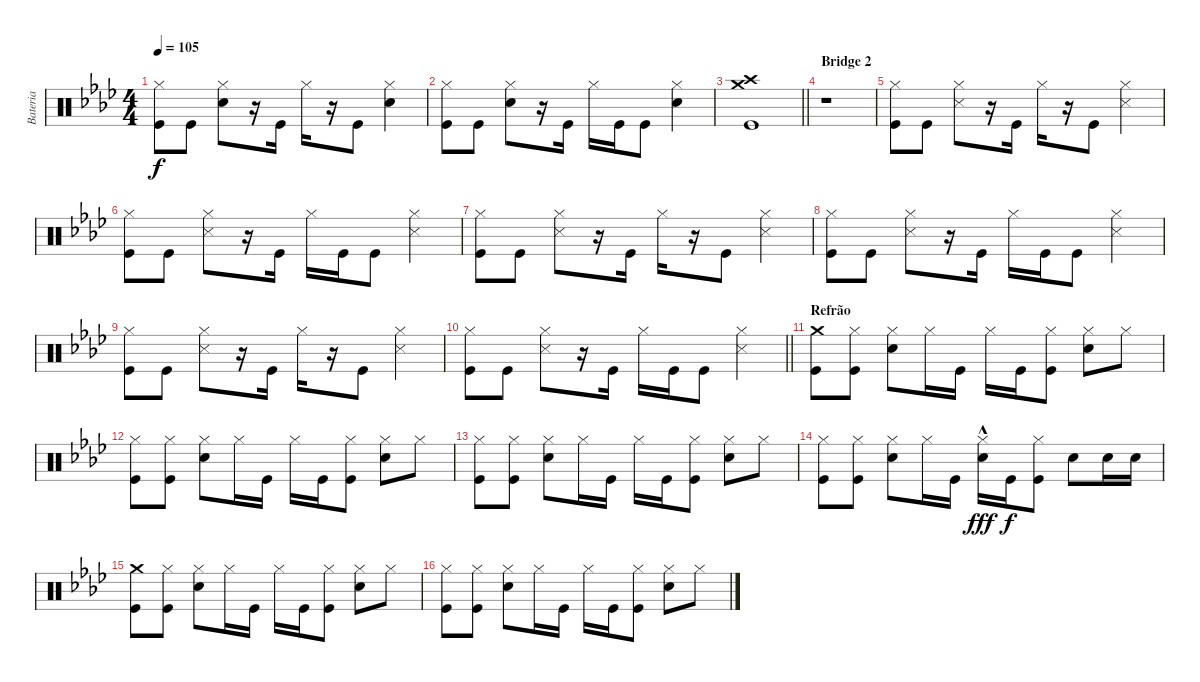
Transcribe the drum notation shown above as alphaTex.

\track ("Bateria" "Bateria") {instrument percussion}
\staff {score}
\articulation defaults
\ts (4 4)
\tempo 105
\clef neutral
\ks fminor
("Hi-Hat (closed)" "Kick (hit)").8{dy f} "Kick (hit)".8 ("Hi-Hat (closed)" "Electric Snare (hit)").8 r.16 "Kick (hit)".16 "Hi-Hat (closed)".16 r.16 "Kick (hit)".8 ("Hi-Hat (closed)" "Electric Snare (hit)").4 |
("Hi-Hat (closed)" "Kick (hit)").8 "Kick (hit)".8 ("Hi-Hat (closed)" "Electric Snare (hit)").8 r.16 "Kick (hit)".16 "Hi-Hat (closed)".16 "Kick (hit)".16 "Kick (hit)".8 ("Hi-Hat (closed)" "Electric Snare (hit)").4 |
\barLineRight lightlight
("Crash high (hit)" "Crash medium (hit)" "Kick (hit)").1 |
\section ("" "Bridge 2")
r.1 |
("Hi-Hat (closed)" "Kick (hit)").8 "Kick (hit)".8 ("Hi-Hat (closed)" "Snare (side stick) 3").8 r.16 "Kick (hit)".16 "Hi-Hat (closed)".16 r.16 "Kick (hit)".8 ("Hi-Hat (closed)" "Snare (side stick) 3").4 |
("Hi-Hat (closed)" "Kick (hit)").8 "Kick (hit)".8 ("Hi-Hat (closed)" "Snare (side stick) 3").8 r.16 "Kick (hit)".16 "Hi-Hat (closed)".16 "Kick (hit)".16 "Kick (hit)".8 ("Hi-Hat (closed)" "Snare (side stick) 3").4 |
("Hi-Hat (closed)" "Kick (hit)").8 "Kick (hit)".8 ("Hi-Hat (closed)" "Snare (side stick) 3").8 r.16 "Kick (hit)".16 "Hi-Hat (closed)".16 r.16 "Kick (hit)".8 ("Hi-Hat (closed)" "Snare (side stick) 3").4 |
("Hi-Hat (closed)" "Kick (hit)").8 "Kick (hit)".8 ("Hi-Hat (closed)" "Snare (side stick) 3").8 r.16 "Kick (hit)".16 "Hi-Hat (closed)".16 "Kick (hit)".16 "Kick (hit)".8 ("Hi-Hat (closed)" "Snare (side stick) 3").4 |
("Hi-Hat (closed)" "Kick (hit)").8 "Kick (hit)".8 ("Hi-Hat (closed)" "Snare (side stick) 3").8 r.16 "Kick (hit)".16 "Hi-Hat (closed)".16 r.16 "Kick (hit)".8 ("Hi-Hat (closed)" "Snare (side stick) 3").4 |
\barLineRight lightlight
("Hi-Hat (closed)" "Kick (hit)").8 "Kick (hit)".8 ("Hi-Hat (closed)" "Snare (side stick) 3").8 r.16 "Kick (hit)".16 "Hi-Hat (closed)".16 "Kick (hit)".16 "Kick (hit)".8 ("Hi-Hat (closed)" "Snare (side stick) 3").4 |
\section ("" "Refrão")
("Crash medium (hit)" "Kick (hit)").8 ("Hi-Hat (closed)" "Kick (hit)").8 ("Hi-Hat (closed)" "Electric Snare (hit)").8 "Hi-Hat (closed)".16 "Kick (hit)".16 "Hi-Hat (closed)".16 "Kick (hit)".16 ("Hi-Hat (closed)" "Kick (hit)").8 ("Hi-Hat (closed)" "Electric Snare (hit)").8 "Hi-Hat (closed)".8 |
("Hi-Hat (closed)" "Kick (hit)").8 ("Hi-Hat (closed)" "Kick (hit)").8 ("Hi-Hat (closed)" "Electric Snare (hit)").8 "Hi-Hat (closed)".16 "Kick (hit)".16 "Hi-Hat (closed)".16 "Kick (hit)".16 ("Hi-Hat (closed)" "Kick (hit)").8 ("Hi-Hat (closed)" "Electric Snare (hit)").8 "Hi-Hat (closed)".8 |
("Hi-Hat (closed)" "Kick (hit)").8 ("Hi-Hat (closed)" "Kick (hit)").8 ("Hi-Hat (closed)" "Electric Snare (hit)").8 "Hi-Hat (closed)".16 "Kick (hit)".16 "Hi-Hat (closed)".16 "Kick (hit)".16 ("Hi-Hat (closed)" "Kick (hit)").8 ("Hi-Hat (closed)" "Electric Snare (hit)").8 "Hi-Hat (closed)".8 |
("Hi-Hat (closed)" "Kick (hit)").8 ("Hi-Hat (closed)" "Kick (hit)").8 ("Hi-Hat (closed)" "Electric Snare (hit)").8 "Hi-Hat (closed)".16 "Kick (hit)".16 ("Hi-Hat (closed)" "Electric Snare (hit)"{hac}).16{dy fff} "Kick (hit)".16{dy f} ("Hi-Hat (closed)" "Kick (hit)").8 "Electric Snare (hit)".8 "Electric Snare (hit)".16 "Electric Snare (hit)".16 |
("Crash medium (hit)" "Kick (hit)").8 ("Hi-Hat (closed)" "Kick (hit)").8 ("Hi-Hat (closed)" "Electric Snare (hit)").8 "Hi-Hat (closed)".16 "Kick (hit)".16 "Hi-Hat (closed)".16 "Kick (hit)".16 ("Hi-Hat (closed)" "Kick (hit)").8 ("Hi-Hat (closed)" "Electric Snare (hit)").8 "Hi-Hat (closed)".8 |
("Hi-Hat (closed)" "Kick (hit)").8 ("Hi-Hat (closed)" "Kick (hit)").8 ("Hi-Hat (closed)" "Electric Snare (hit)").8 "Hi-Hat (closed)".16 "Kick (hit)".16 "Hi-Hat (closed)".16 "Kick (hit)".16 ("Hi-Hat (closed)" "Kick (hit)").8 ("Hi-Hat (closed)" "Electric Snare (hit)").8 "Hi-Hat (closed)".8
